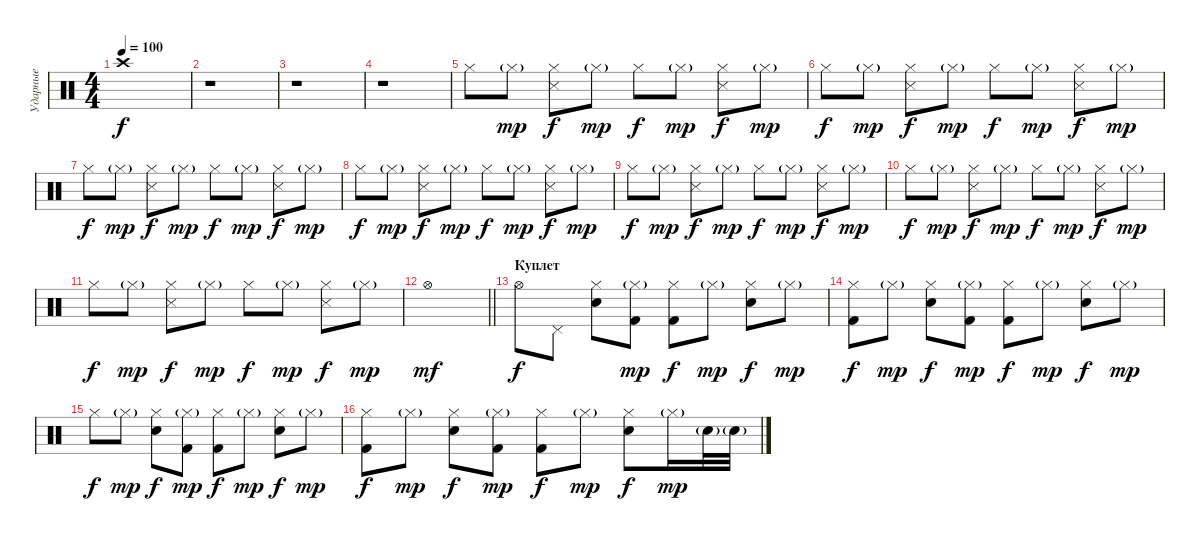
\track ("Ударные" "Ударные") {instrument percussion}
\staff {score}
\articulation defaults
\ts (4 4)
\tempo 100
\clef neutral
\ks c "Crash high (hit)".1{dy f}
|
r.1 |
r.1 |
r.1 |
"Hi-Hat (closed)".8 "Hi-Hat (closed)"{g}.8{dy mp} ("Hi-Hat (closed)" "Snare (side stick) 3").8{dy f} "Hi-Hat (closed)"{g}.8{dy mp} "Hi-Hat (closed)".8{dy f} "Hi-Hat (closed)"{g}.8{dy mp} ("Hi-Hat (closed)" "Snare (side stick) 3").8{dy f} "Hi-Hat (closed)"{g}.8{dy mp} |
"Hi-Hat (closed)".8{dy f} "Hi-Hat (closed)"{g}.8{dy mp} ("Hi-Hat (closed)" "Snare (side stick) 3").8{dy f} "Hi-Hat (closed)"{g}.8{dy mp} "Hi-Hat (closed)".8{dy f} "Hi-Hat (closed)"{g}.8{dy mp} ("Hi-Hat (closed)" "Snare (side stick) 3").8{dy f} "Hi-Hat (closed)"{g}.8{dy mp} |
"Hi-Hat (closed)".8{dy f} "Hi-Hat (closed)"{g}.8{dy mp} ("Hi-Hat (closed)" "Snare (side stick) 3").8{dy f} "Hi-Hat (closed)"{g}.8{dy mp} "Hi-Hat (closed)".8{dy f} "Hi-Hat (closed)"{g}.8{dy mp} ("Hi-Hat (closed)" "Snare (side stick) 3").8{dy f} "Hi-Hat (closed)"{g}.8{dy mp} |
"Hi-Hat (closed)".8{dy f} "Hi-Hat (closed)"{g}.8{dy mp} ("Hi-Hat (closed)" "Snare (side stick) 3").8{dy f} "Hi-Hat (closed)"{g}.8{dy mp} "Hi-Hat (closed)".8{dy f} "Hi-Hat (closed)"{g}.8{dy mp} ("Hi-Hat (closed)" "Snare (side stick) 3").8{dy f} "Hi-Hat (closed)"{g}.8{dy mp} |
"Hi-Hat (closed)".8{dy f} "Hi-Hat (closed)"{g}.8{dy mp} ("Hi-Hat (closed)" "Snare (side stick) 3").8{dy f} "Hi-Hat (closed)"{g}.8{dy mp} "Hi-Hat (closed)".8{dy f} "Hi-Hat (closed)"{g}.8{dy mp} ("Hi-Hat (closed)" "Snare (side stick) 3").8{dy f} "Hi-Hat (closed)"{g}.8{dy mp} |
"Hi-Hat (closed)".8{dy f} "Hi-Hat (closed)"{g}.8{dy mp} ("Hi-Hat (closed)" "Snare (side stick) 3").8{dy f} "Hi-Hat (closed)"{g}.8{dy mp} "Hi-Hat (closed)".8{dy f} "Hi-Hat (closed)"{g}.8{dy mp} ("Hi-Hat (closed)" "Snare (side stick) 3").8{dy f} "Hi-Hat (closed)"{g}.8{dy mp} |
"Hi-Hat (closed)".8{dy f} "Hi-Hat (closed)"{g}.8{dy mp} ("Hi-Hat (closed)" "Snare (side stick) 3").8{dy f} "Hi-Hat (closed)"{g}.8{dy mp} "Hi-Hat (closed)".8{dy f} "Hi-Hat (closed)"{g}.8{dy mp} ("Hi-Hat (closed)" "Snare (side stick) 3").8{dy f} "Hi-Hat (closed)"{g}.8{dy mp} |
\barLineRight lightlight "Hi-Hat (open)".1{dy mf}
|
\section ("" "Куплет")
"Hi-Hat (open)".8{dy f} "Pedal Hi-Hat (hit)".8 ("Hi-Hat (closed)" "Electric Snare (hit)").8 ("Hi-Hat (closed)"{g} "Kick (hit) 2").8{dy mp} ("Hi-Hat (closed)" "Kick (hit) 2").8{dy f} "Hi-Hat (closed)"{g}.8{dy mp} ("Hi-Hat (closed)" "Electric Snare (hit)").8{dy f} "Hi-Hat (closed)"{g}.8{dy mp} |
("Hi-Hat (closed)" "Kick (hit) 2").8{dy f} "Hi-Hat (closed)"{g}.8{dy mp} ("Hi-Hat (closed)" "Electric Snare (hit)").8{dy f} ("Hi-Hat (closed)"{g} "Kick (hit) 2").8{dy mp} ("Hi-Hat (closed)" "Kick (hit) 2").8{dy f} "Hi-Hat (closed)"{g}.8{dy mp} ("Hi-Hat (closed)" "Electric Snare (hit)").8{dy f} "Hi-Hat (closed)"{g}.8{dy mp} |
"Hi-Hat (closed)".8{dy f} "Hi-Hat (closed)"{g}.8{dy mp} ("Hi-Hat (closed)" "Electric Snare (hit)").8{dy f} ("Hi-Hat (closed)"{g} "Kick (hit) 2").8{dy mp} ("Hi-Hat (closed)" "Kick (hit) 2").8{dy f} "Hi-Hat (closed)"{g}.8{dy mp} ("Hi-Hat (closed)" "Electric Snare (hit)").8{dy f} "Hi-Hat (closed)"{g}.8{dy mp} |
("Hi-Hat (closed)" "Kick (hit) 2").8{dy f} "Hi-Hat (closed)"{g}.8{dy mp} ("Hi-Hat (closed)" "Electric Snare (hit)").8{dy f} ("Hi-Hat (closed)"{g} "Kick (hit) 2").8{dy mp} ("Hi-Hat (closed)" "Kick (hit) 2").8{dy f} "Hi-Hat (closed)"{g}.8{dy mp} ("Hi-Hat (closed)" "Electric Snare (hit)").8{dy f} "Hi-Hat (closed)"{g}.16{dy mp} "Electric Snare (hit)"{g}.32 "Electric Snare (hit)"{g}.32
